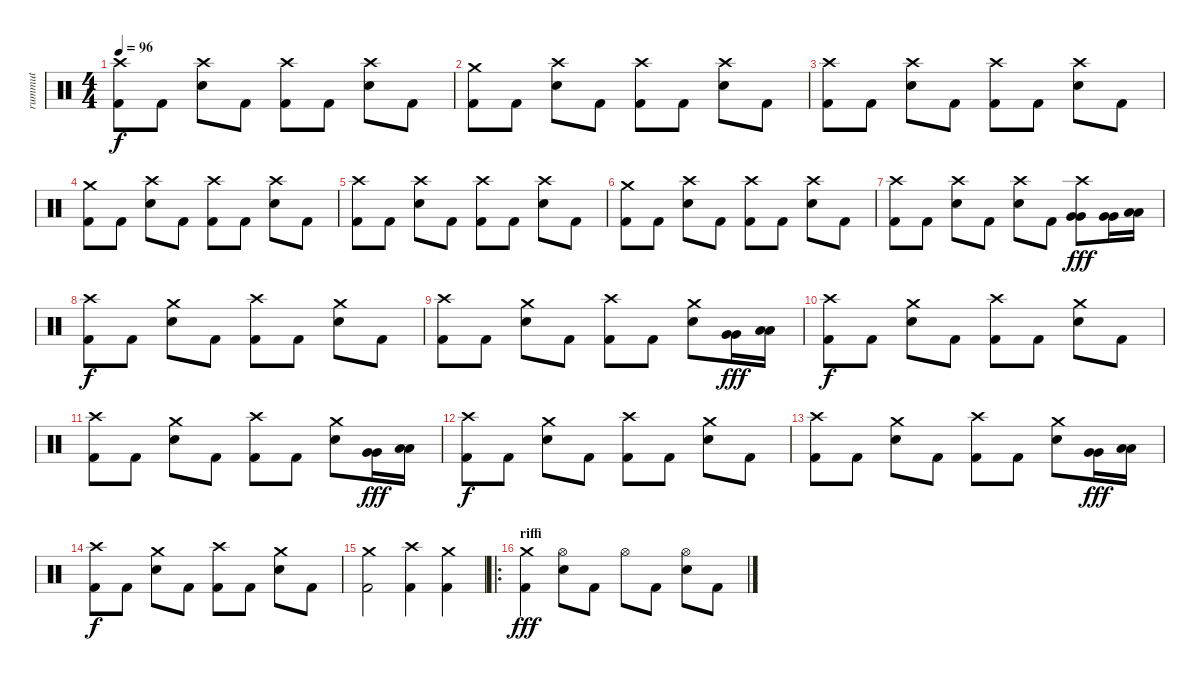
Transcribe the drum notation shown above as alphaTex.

\track ("rummut" "rummut") {instrument percussion}
\staff {score}
\articulation defaults
\ts (4 4)
\tempo 96
\clef neutral
\ks c
("Kick (hit) 2" "Crash high (hit)").8{dy f} "Kick (hit) 2".8 ("Crash high (hit)" "Snare (hit) 2").8 "Kick (hit) 2".8 ("Kick (hit) 2" "Crash high (hit)").8 "Kick (hit) 2".8 ("Crash high (hit)" "Snare (hit) 2").8 "Kick (hit) 2".8 |
("Kick (hit) 2" "Crash medium (hit)").8 "Kick (hit) 2".8 ("Crash high (hit)" "Snare (hit) 2").8 "Kick (hit) 2".8 ("Kick (hit) 2" "Crash high (hit)").8 "Kick (hit) 2".8 ("Crash high (hit)" "Snare (hit) 2").8 "Kick (hit) 2".8 |
("Kick (hit) 2" "Crash high (hit)").8 "Kick (hit) 2".8 ("Crash high (hit)" "Snare (hit) 2").8 "Kick (hit) 2".8 ("Kick (hit) 2" "Crash high (hit)").8 "Kick (hit) 2".8 ("Crash high (hit)" "Snare (hit) 2").8 "Kick (hit) 2".8 |
("Kick (hit) 2" "Crash medium (hit)").8 "Kick (hit) 2".8 ("Crash high (hit)" "Snare (hit) 2").8 "Kick (hit) 2".8 ("Kick (hit) 2" "Crash high (hit)").8 "Kick (hit) 2".8 ("Crash high (hit)" "Snare (hit) 2").8 "Kick (hit) 2".8 |
("Kick (hit) 2" "Crash high (hit)").8 "Kick (hit) 2".8 ("Crash high (hit)" "Snare (hit) 2").8 "Kick (hit) 2".8 ("Kick (hit) 2" "Crash high (hit)").8 "Kick (hit) 2".8 ("Crash high (hit)" "Snare (hit) 2").8 "Kick (hit) 2".8 |
("Kick (hit) 2" "Crash medium (hit)").8 "Kick (hit) 2".8 ("Crash high (hit)" "Snare (hit) 2").8 "Kick (hit) 2".8 ("Kick (hit) 2" "Crash high (hit)").8 "Kick (hit) 2".8 ("Crash high (hit)" "Snare (hit) 2").8 "Kick (hit) 2".8 |
("Kick (hit) 2" "Crash high (hit)").8 "Kick (hit) 2".8 ("Crash high (hit)" "Snare (hit) 2").8 "Kick (hit) 2".8 ("Crash high (hit)" "Snare (hit) 2").8 "Kick (hit) 2".8 ("Crash high (hit)" "Very Low Tom (hit)" "Very Low Tom (hit)").8{dy fff} ("Very Low Tom (hit)" "Very Low Tom (hit)").16 ("Low Floor Tom (hit)" "Low Floor Tom (hit)").16 |
("Kick (hit) 2" "Crash high (hit)").8{dy f} "Kick (hit) 2".8 ("Crash medium (hit)" "Snare (hit) 2").8 "Kick (hit) 2".8 ("Kick (hit) 2" "Crash high (hit)").8 "Kick (hit) 2".8 ("Crash medium (hit)" "Snare (hit) 2").8 "Kick (hit) 2".8 |
("Kick (hit) 2" "Crash high (hit)").8 "Kick (hit) 2".8 ("Crash medium (hit)" "Snare (hit) 2").8 "Kick (hit) 2".8 ("Kick (hit) 2" "Crash high (hit)").8 "Kick (hit) 2".8 ("Crash medium (hit)" "Snare (hit) 2").8 ("Very Low Tom (hit)" "Very Low Tom (hit)").16{dy fff} ("Low Floor Tom (hit)" "Low Floor Tom (hit)").16 |
("Kick (hit) 2" "Crash high (hit)").8{dy f} "Kick (hit) 2".8 ("Crash medium (hit)" "Snare (hit) 2").8 "Kick (hit) 2".8 ("Kick (hit) 2" "Crash high (hit)").8 "Kick (hit) 2".8 ("Crash medium (hit)" "Snare (hit) 2").8 "Kick (hit) 2".8 |
("Kick (hit) 2" "Crash high (hit)").8 "Kick (hit) 2".8 ("Crash medium (hit)" "Snare (hit) 2").8 "Kick (hit) 2".8 ("Kick (hit) 2" "Crash high (hit)").8 "Kick (hit) 2".8 ("Crash medium (hit)" "Snare (hit) 2").8 ("Very Low Tom (hit)" "Very Low Tom (hit)").16{dy fff} ("Low Floor Tom (hit)" "Low Floor Tom (hit)").16 |
("Kick (hit) 2" "Crash high (hit)").8{dy f} "Kick (hit) 2".8 ("Crash medium (hit)" "Snare (hit) 2").8 "Kick (hit) 2".8 ("Kick (hit) 2" "Crash high (hit)").8 "Kick (hit) 2".8 ("Crash medium (hit)" "Snare (hit) 2").8 "Kick (hit) 2".8 |
("Kick (hit) 2" "Crash high (hit)").8 "Kick (hit) 2".8 ("Crash medium (hit)" "Snare (hit) 2").8 "Kick (hit) 2".8 ("Kick (hit) 2" "Crash high (hit)").8 "Kick (hit) 2".8 ("Crash medium (hit)" "Snare (hit) 2").8 ("Very Low Tom (hit)" "Very Low Tom (hit)").16{dy fff} ("Low Floor Tom (hit)" "Low Floor Tom (hit)").16 |
("Kick (hit) 2" "Crash high (hit)").8{dy f} "Kick (hit) 2".8 ("Crash medium (hit)" "Snare (hit) 2").8 "Kick (hit) 2".8 ("Kick (hit) 2" "Crash high (hit)").8 "Kick (hit) 2".8 ("Crash medium (hit)" "Snare (hit) 2").8 "Kick (hit) 2".8 |
("Kick (hit) 2" "Crash medium (hit)").2 ("Kick (hit) 2" "Crash high (hit)").4 ("Kick (hit) 2" "Crash medium (hit)").4 |
\ro
\section ("" "riffi")
("Kick (hit) 2" "Crash medium (hit)").4{dy fff} ("Hi-Hat (open)" "Snare (hit) 2").8 "Kick (hit) 2".8 "Hi-Hat (open)".8 "Kick (hit) 2".8 ("Hi-Hat (open)" "Snare (hit) 2").8 "Kick (hit) 2".8
